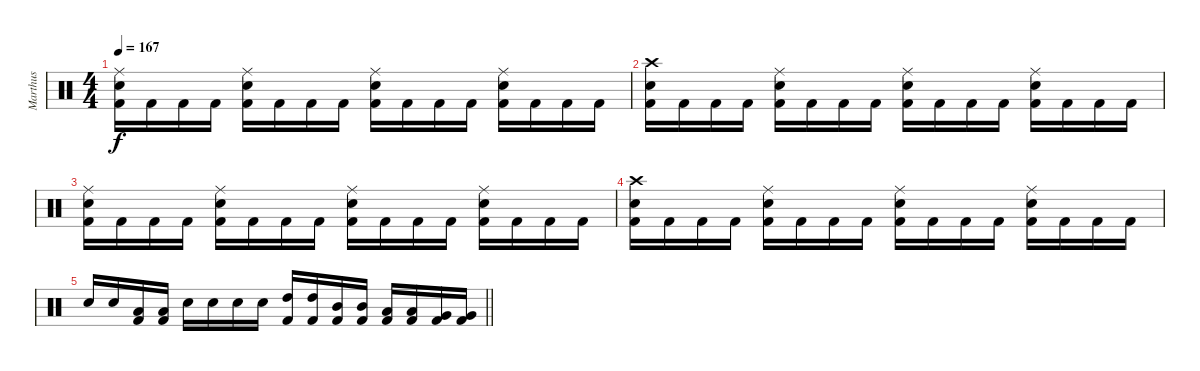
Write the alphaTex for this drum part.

\track ("Marthus" "Marthus") {instrument percussion}
\staff {score}
\articulation defaults
\ts (4 4)
\tempo 167
\clef neutral
\ks c
("Kick (hit) 2" "Snare (hit) 2" "Ride (middle)").16{dy f} "Kick (hit) 2".16 "Kick (hit) 2".16 "Kick (hit) 2".16 ("Kick (hit) 2" "Snare (hit) 2" "Ride (middle)").16 "Kick (hit) 2".16 "Kick (hit) 2".16 "Kick (hit) 2".16 ("Kick (hit) 2" "Snare (hit) 2" "Ride (middle)").16 "Kick (hit) 2".16 "Kick (hit) 2".16 "Kick (hit) 2".16 ("Kick (hit) 2" "Snare (hit) 2" "Ride (middle)").16 "Kick (hit) 2".16 "Kick (hit) 2".16 "Kick (hit) 2".16 |
("Kick (hit) 2" "Snare (hit) 2" "Crash high (hit)").16 "Kick (hit) 2".16 "Kick (hit) 2".16 "Kick (hit) 2".16 ("Kick (hit) 2" "Snare (hit) 2" "Ride (middle)").16 "Kick (hit) 2".16 "Kick (hit) 2".16 "Kick (hit) 2".16 ("Kick (hit) 2" "Snare (hit) 2" "Ride (middle)").16 "Kick (hit) 2".16 "Kick (hit) 2".16 "Kick (hit) 2".16 ("Kick (hit) 2" "Snare (hit) 2" "Ride (middle)").16 "Kick (hit) 2".16 "Kick (hit) 2".16 "Kick (hit) 2".16 |
("Kick (hit) 2" "Snare (hit) 2" "Ride (middle)").16 "Kick (hit) 2".16 "Kick (hit) 2".16 "Kick (hit) 2".16 ("Kick (hit) 2" "Snare (hit) 2" "Ride (middle)").16 "Kick (hit) 2".16 "Kick (hit) 2".16 "Kick (hit) 2".16 ("Kick (hit) 2" "Snare (hit) 2" "Ride (middle)").16 "Kick (hit) 2".16 "Kick (hit) 2".16 "Kick (hit) 2".16 ("Kick (hit) 2" "Snare (hit) 2" "Ride (middle)").16 "Kick (hit) 2".16 "Kick (hit) 2".16 "Kick (hit) 2".16 |
("Kick (hit) 2" "Snare (hit) 2" "Crash high (hit)").16 "Kick (hit) 2".16 "Kick (hit) 2".16 "Kick (hit) 2".16 ("Kick (hit) 2" "Snare (hit) 2" "Ride (middle)").16 "Kick (hit) 2".16 "Kick (hit) 2".16 "Kick (hit) 2".16 ("Kick (hit) 2" "Snare (hit) 2" "Ride (middle)").16 "Kick (hit) 2".16 "Kick (hit) 2".16 "Kick (hit) 2".16 ("Kick (hit) 2" "Snare (hit) 2" "Ride (middle)").16 "Kick (hit) 2".16 "Kick (hit) 2".16 "Kick (hit) 2".16 |
\barLineRight lightlight "Snare (hit) 2".16 "Snare (hit) 2".16
("Kick (hit) 2" "Low Tom (hit)").16 ("Kick (hit) 2" "Low Tom (hit)").16 "Snare (hit) 2".16 "Snare (hit) 2".16 "Snare (hit) 2".16 "Snare (hit) 2".16 ("Kick (hit) 2" "High Tom (hit)").16 ("Kick (hit) 2" "High Tom (hit)").16 ("Kick (hit) 2" "Mid Tom (hit)").16 ("Kick (hit) 2" "Mid Tom (hit)").16 ("Kick (hit) 2" "Low Tom (hit)").16 ("Kick (hit) 2" "Low Tom (hit)").16 ("Kick (hit) 2" "Very Low Tom (hit)").16 ("Kick (hit) 2" "Very Low Tom (hit)").16
